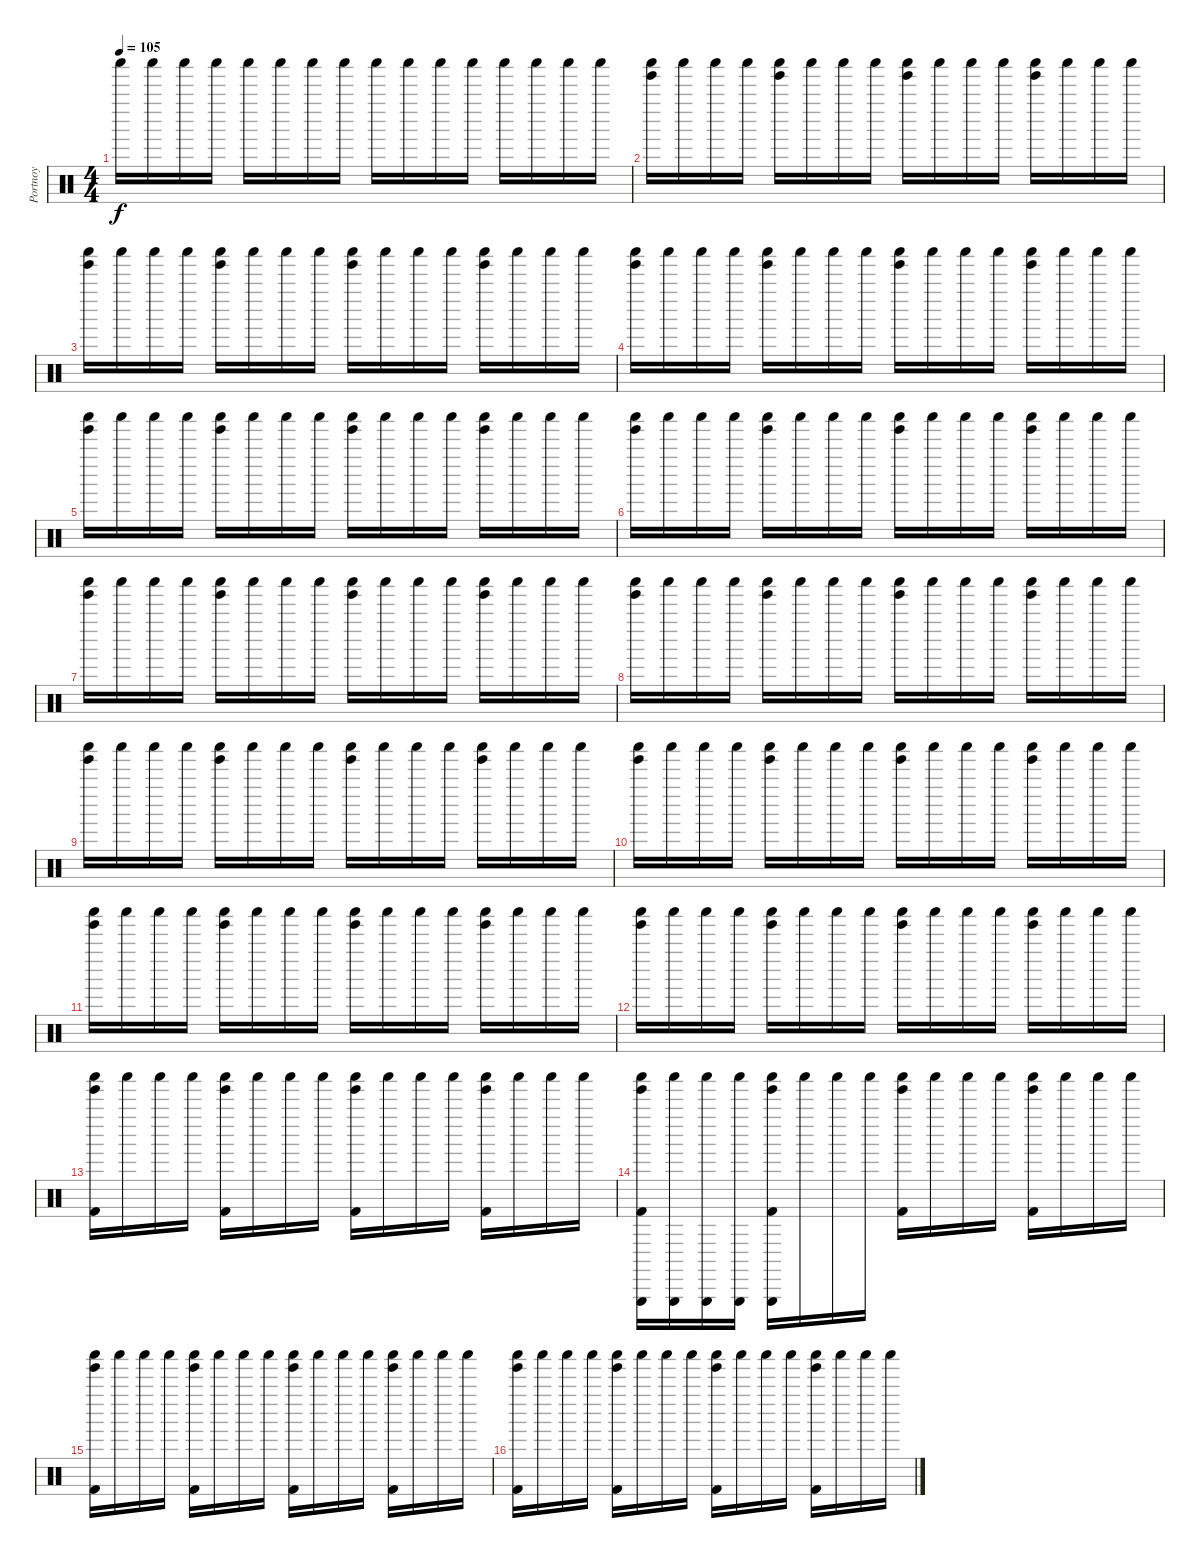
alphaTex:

\track ("Portnoy" "Portnoy") {instrument percussion}
\staff {score}
\articulation defaults
\ts (4 4)
\tempo 105
\clef neutral
\ks c "Shaker (hit)".16{dy f volume 1} "Shaker (hit)".16{volume 13} "Shaker (hit)".16 "Shaker (hit)".16 "Shaker (hit)".16 "Shaker (hit)".16 "Shaker (hit)".16 "Shaker (hit)".16 "Shaker (hit)".16 "Shaker (hit)".16 "Shaker (hit)".16 "Shaker (hit)".16 "Shaker (hit)".16 "Shaker (hit)".16 "Shaker (hit)".16 "Shaker (hit)".16
|
("Shaker (hit)" "Tinkle Bell (hit)").16 "Shaker (hit)".16 "Shaker (hit)".16 "Shaker (hit)".16 ("Shaker (hit)" "Tinkle Bell (hit)").16 "Shaker (hit)".16 "Shaker (hit)".16 "Shaker (hit)".16 ("Shaker (hit)" "Tinkle Bell (hit)").16 "Shaker (hit)".16 "Shaker (hit)".16 "Shaker (hit)".16 ("Shaker (hit)" "Tinkle Bell (hit)").16 "Shaker (hit)".16 "Shaker (hit)".16 "Shaker (hit)".16 |
("Shaker (hit)" "Tinkle Bell (hit)").16 "Shaker (hit)".16 "Shaker (hit)".16 "Shaker (hit)".16 ("Shaker (hit)" "Tinkle Bell (hit)").16 "Shaker (hit)".16 "Shaker (hit)".16 "Shaker (hit)".16 ("Shaker (hit)" "Tinkle Bell (hit)").16 "Shaker (hit)".16 "Shaker (hit)".16 "Shaker (hit)".16 ("Shaker (hit)" "Tinkle Bell (hit)").16 "Shaker (hit)".16 "Shaker (hit)".16 "Shaker (hit)".16 |
("Shaker (hit)" "Tinkle Bell (hit)").16 "Shaker (hit)".16 "Shaker (hit)".16 "Shaker (hit)".16 ("Shaker (hit)" "Tinkle Bell (hit)").16 "Shaker (hit)".16 "Shaker (hit)".16 "Shaker (hit)".16 ("Shaker (hit)" "Tinkle Bell (hit)").16 "Shaker (hit)".16 "Shaker (hit)".16 "Shaker (hit)".16 ("Shaker (hit)" "Tinkle Bell (hit)").16 "Shaker (hit)".16 "Shaker (hit)".16 "Shaker (hit)".16 |
("Shaker (hit)" "Tinkle Bell (hit)").16 "Shaker (hit)".16 "Shaker (hit)".16 "Shaker (hit)".16 ("Shaker (hit)" "Tinkle Bell (hit)").16 "Shaker (hit)".16 "Shaker (hit)".16 "Shaker (hit)".16 ("Shaker (hit)" "Tinkle Bell (hit)").16 "Shaker (hit)".16 "Shaker (hit)".16 "Shaker (hit)".16 ("Shaker (hit)" "Tinkle Bell (hit)").16 "Shaker (hit)".16 "Shaker (hit)".16 "Shaker (hit)".16 |
("Shaker (hit)" "Tinkle Bell (hit)").16 "Shaker (hit)".16 "Shaker (hit)".16 "Shaker (hit)".16 ("Shaker (hit)" "Tinkle Bell (hit)").16 "Shaker (hit)".16 "Shaker (hit)".16 "Shaker (hit)".16 ("Shaker (hit)" "Tinkle Bell (hit)").16 "Shaker (hit)".16 "Shaker (hit)".16 "Shaker (hit)".16 ("Shaker (hit)" "Tinkle Bell (hit)").16 "Shaker (hit)".16 "Shaker (hit)".16 "Shaker (hit)".16 |
("Shaker (hit)" "Tinkle Bell (hit)").16 "Shaker (hit)".16 "Shaker (hit)".16 "Shaker (hit)".16 ("Shaker (hit)" "Tinkle Bell (hit)").16 "Shaker (hit)".16 "Shaker (hit)".16 "Shaker (hit)".16 ("Shaker (hit)" "Tinkle Bell (hit)").16 "Shaker (hit)".16 "Shaker (hit)".16 "Shaker (hit)".16 ("Shaker (hit)" "Tinkle Bell (hit)").16 "Shaker (hit)".16 "Shaker (hit)".16 "Shaker (hit)".16 |
("Shaker (hit)" "Tinkle Bell (hit)").16 "Shaker (hit)".16 "Shaker (hit)".16 "Shaker (hit)".16 ("Shaker (hit)" "Tinkle Bell (hit)").16 "Shaker (hit)".16 "Shaker (hit)".16 "Shaker (hit)".16 ("Shaker (hit)" "Tinkle Bell (hit)").16 "Shaker (hit)".16 "Shaker (hit)".16 "Shaker (hit)".16 ("Shaker (hit)" "Tinkle Bell (hit)").16 "Shaker (hit)".16 "Shaker (hit)".16 "Shaker (hit)".16 |
("Shaker (hit)" "Tinkle Bell (hit)").16 "Shaker (hit)".16 "Shaker (hit)".16 "Shaker (hit)".16 ("Shaker (hit)" "Tinkle Bell (hit)").16 "Shaker (hit)".16 "Shaker (hit)".16 "Shaker (hit)".16 ("Shaker (hit)" "Tinkle Bell (hit)").16 "Shaker (hit)".16 "Shaker (hit)".16 "Shaker (hit)".16 ("Shaker (hit)" "Tinkle Bell (hit)").16 "Shaker (hit)".16 "Shaker (hit)".16 "Shaker (hit)".16 |
("Shaker (hit)" "Tinkle Bell (hit)").16 "Shaker (hit)".16 "Shaker (hit)".16 "Shaker (hit)".16 ("Shaker (hit)" "Tinkle Bell (hit)").16 "Shaker (hit)".16 "Shaker (hit)".16 "Shaker (hit)".16 ("Shaker (hit)" "Tinkle Bell (hit)").16 "Shaker (hit)".16 "Shaker (hit)".16 "Shaker (hit)".16 ("Shaker (hit)" "Tinkle Bell (hit)").16 "Shaker (hit)".16 "Shaker (hit)".16 "Shaker (hit)".16 |
("Shaker (hit)" "Tinkle Bell (hit)").16 "Shaker (hit)".16 "Shaker (hit)".16 "Shaker (hit)".16 ("Shaker (hit)" "Tinkle Bell (hit)").16 "Shaker (hit)".16 "Shaker (hit)".16 "Shaker (hit)".16 ("Shaker (hit)" "Tinkle Bell (hit)").16 "Shaker (hit)".16 "Shaker (hit)".16 "Shaker (hit)".16 ("Shaker (hit)" "Tinkle Bell (hit)").16 "Shaker (hit)".16 "Shaker (hit)".16 "Shaker (hit)".16 |
("Shaker (hit)" "Tinkle Bell (hit)").16 "Shaker (hit)".16 "Shaker (hit)".16 "Shaker (hit)".16 ("Shaker (hit)" "Tinkle Bell (hit)").16 "Shaker (hit)".16 "Shaker (hit)".16 "Shaker (hit)".16 ("Shaker (hit)" "Tinkle Bell (hit)").16 "Shaker (hit)".16 "Shaker (hit)".16 "Shaker (hit)".16 ("Shaker (hit)" "Tinkle Bell (hit)").16 "Shaker (hit)".16 "Shaker (hit)".16 "Shaker (hit)".16 |
("Shaker (hit)" "Tinkle Bell (hit)" "Kick (hit) 2").16 "Shaker (hit)".16 "Shaker (hit)".16 "Shaker (hit)".16 ("Shaker (hit)" "Tinkle Bell (hit)" "Kick (hit) 2").16 "Shaker (hit)".16 "Shaker (hit)".16 "Shaker (hit)".16 ("Shaker (hit)" "Tinkle Bell (hit)" "Kick (hit) 2").16 "Shaker (hit)".16 "Shaker (hit)".16 "Shaker (hit)".16 ("Shaker (hit)" "Tinkle Bell (hit)" "Kick (hit) 2").16 "Shaker (hit)".16 "Shaker (hit)".16 "Shaker (hit)".16 |
("Shaker (hit)" "Tinkle Bell (hit)" "Triangle (hit)" "Kick (hit) 2").16 ("Shaker (hit)" "Triangle (hit)").16 ("Shaker (hit)" "Triangle (hit)").16 ("Shaker (hit)" "Triangle (hit)").16 ("Shaker (hit)" "Tinkle Bell (hit)" "Triangle (hit)" "Kick (hit) 2").16 "Shaker (hit)".16 "Shaker (hit)".16 "Shaker (hit)".16 ("Shaker (hit)" "Tinkle Bell (hit)" "Kick (hit) 2").16 "Shaker (hit)".16 "Shaker (hit)".16 "Shaker (hit)".16 ("Shaker (hit)" "Tinkle Bell (hit)" "Kick (hit) 2").16 "Shaker (hit)".16 "Shaker (hit)".16 "Shaker (hit)".16 |
("Shaker (hit)" "Tinkle Bell (hit)" "Kick (hit) 2").16 "Shaker (hit)".16 "Shaker (hit)".16 "Shaker (hit)".16 ("Shaker (hit)" "Tinkle Bell (hit)" "Kick (hit) 2").16 "Shaker (hit)".16 "Shaker (hit)".16 "Shaker (hit)".16 ("Shaker (hit)" "Tinkle Bell (hit)" "Kick (hit) 2").16 "Shaker (hit)".16 "Shaker (hit)".16 "Shaker (hit)".16 ("Shaker (hit)" "Tinkle Bell (hit)" "Kick (hit) 2").16 "Shaker (hit)".16 "Shaker (hit)".16 "Shaker (hit)".16 |
("Shaker (hit)" "Tinkle Bell (hit)" "Kick (hit) 2").16 "Shaker (hit)".16 "Shaker (hit)".16 "Shaker (hit)".16 ("Shaker (hit)" "Tinkle Bell (hit)" "Kick (hit) 2").16 "Shaker (hit)".16 "Shaker (hit)".16 "Shaker (hit)".16 ("Shaker (hit)" "Tinkle Bell (hit)" "Kick (hit) 2").16 "Shaker (hit)".16 "Shaker (hit)".16 "Shaker (hit)".16 ("Shaker (hit)" "Tinkle Bell (hit)" "Kick (hit) 2").16 "Shaker (hit)".16 "Shaker (hit)".16 "Shaker (hit)".16
